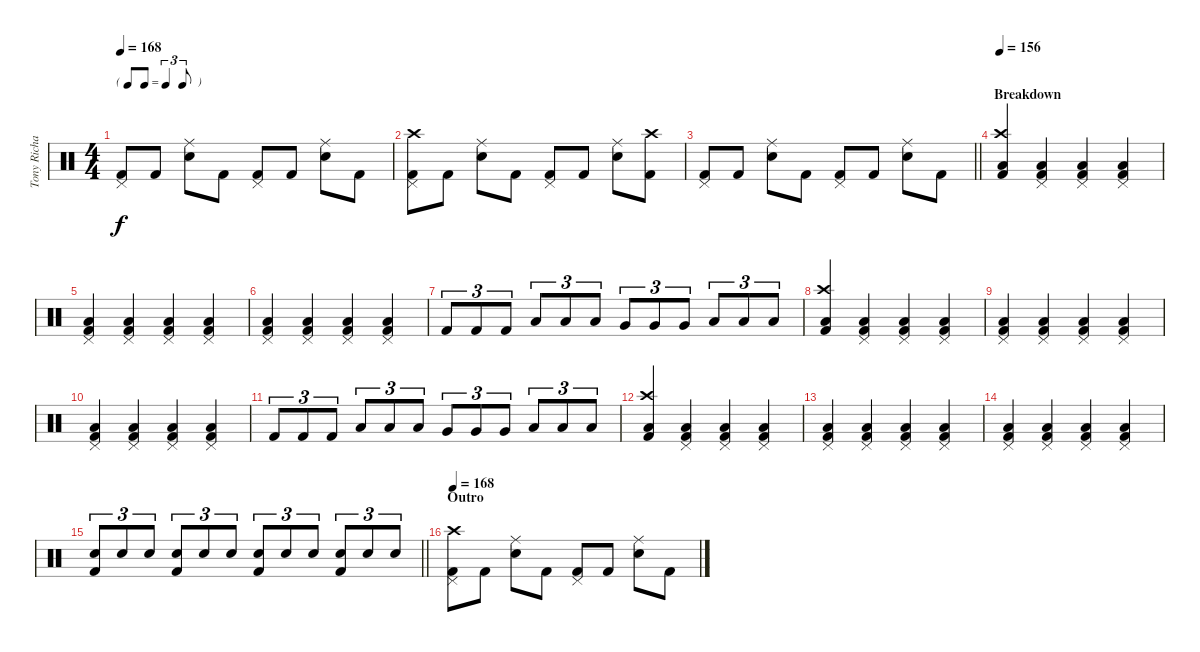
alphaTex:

\track ("Tony Richards (drums)" "Tony Richa") {instrument percussion}
\staff {score}
\articulation defaults
\ts (4 4)
\tf triplet8th
\tempo 168
\clef neutral
\ks c
("Pedal Hi-Hat (hit)" "Kick (hit) 2").8{dy f} "Kick (hit) 2".8 ("Ride (middle)" "Snare (hit) 2").8 "Kick (hit) 2".8 ("Pedal Hi-Hat (hit)" "Kick (hit) 2").8 "Kick (hit) 2".8 ("Ride (middle)" "Snare (hit) 2").8 "Kick (hit) 2".8 |
("Crash high (hit)" "Pedal Hi-Hat (hit)" "Kick (hit) 2").8 "Kick (hit) 2".8 ("Ride (middle)" "Snare (hit) 2").8 "Kick (hit) 2".8 ("Pedal Hi-Hat (hit)" "Kick (hit) 2").8 "Kick (hit) 2".8 ("Ride (middle)" "Snare (hit) 2").8 ("Crash high (hit)" "Kick (hit) 2").8 |
\barLineRight lightlight
("Pedal Hi-Hat (hit)" "Kick (hit) 2").8 "Kick (hit) 2".8 ("Ride (middle)" "Snare (hit) 2").8 "Kick (hit) 2".8 ("Pedal Hi-Hat (hit)" "Kick (hit) 2").8 "Kick (hit) 2".8 ("Ride (middle)" "Snare (hit) 2").8 "Kick (hit) 2".8 |
\section ("" "Breakdown")
\tempo 156
("Crash high (hit)" "Low Floor Tom (hit)" "Kick (hit) 2").4 ("Pedal Hi-Hat (hit)" "Low Floor Tom (hit)" "Kick (hit) 2").4 ("Pedal Hi-Hat (hit)" "Low Floor Tom (hit)" "Kick (hit) 2").4 ("Pedal Hi-Hat (hit)" "Low Floor Tom (hit)" "Kick (hit) 2").4 |
("Pedal Hi-Hat (hit)" "Low Floor Tom (hit)" "Kick (hit) 2").4 ("Pedal Hi-Hat (hit)" "Low Floor Tom (hit)" "Kick (hit) 2").4 ("Pedal Hi-Hat (hit)" "Low Floor Tom (hit)" "Kick (hit) 2").4 ("Pedal Hi-Hat (hit)" "Low Floor Tom (hit)" "Kick (hit) 2").4 |
("Pedal Hi-Hat (hit)" "Low Floor Tom (hit)" "Kick (hit) 2").4 ("Pedal Hi-Hat (hit)" "Low Floor Tom (hit)" "Kick (hit) 2").4 ("Pedal Hi-Hat (hit)" "Low Floor Tom (hit)" "Kick (hit) 2").4 ("Pedal Hi-Hat (hit)" "Low Floor Tom (hit)" "Kick (hit) 2").4 |
"Kick (hit) 2".8{tu (3 2)} "Kick (hit) 2".8{tu (3 2)} "Kick (hit) 2".8{tu (3 2)} "Low Floor Tom (hit)".8{tu (3 2)} "Low Floor Tom (hit)".8{tu (3 2)} "Low Floor Tom (hit)".8{tu (3 2)} "Very Low Tom (hit)".8{tu (3 2)} "Very Low Tom (hit)".8{tu (3 2)} "Very Low Tom (hit)".8{tu (3 2)} "Low Tom (hit)".8{tu (3 2)} "Low Tom (hit)".8{tu (3 2)} "Low Tom (hit)".8{tu (3 2)} |
("Crash high (hit)" "Low Floor Tom (hit)" "Kick (hit) 2").4 ("Pedal Hi-Hat (hit)" "Low Floor Tom (hit)" "Kick (hit) 2").4 ("Pedal Hi-Hat (hit)" "Low Floor Tom (hit)" "Kick (hit) 2").4 ("Pedal Hi-Hat (hit)" "Low Floor Tom (hit)" "Kick (hit) 2").4 |
("Pedal Hi-Hat (hit)" "Low Floor Tom (hit)" "Kick (hit) 2").4 ("Pedal Hi-Hat (hit)" "Low Floor Tom (hit)" "Kick (hit) 2").4 ("Pedal Hi-Hat (hit)" "Low Floor Tom (hit)" "Kick (hit) 2").4 ("Pedal Hi-Hat (hit)" "Low Floor Tom (hit)" "Kick (hit) 2").4 |
("Pedal Hi-Hat (hit)" "Low Floor Tom (hit)" "Kick (hit) 2").4 ("Pedal Hi-Hat (hit)" "Low Floor Tom (hit)" "Kick (hit) 2").4 ("Pedal Hi-Hat (hit)" "Low Floor Tom (hit)" "Kick (hit) 2").4 ("Pedal Hi-Hat (hit)" "Low Floor Tom (hit)" "Kick (hit) 2").4 |
"Kick (hit) 2".8{tu (3 2)} "Kick (hit) 2".8{tu (3 2)} "Kick (hit) 2".8{tu (3 2)} "Low Floor Tom (hit)".8{tu (3 2)} "Low Floor Tom (hit)".8{tu (3 2)} "Low Floor Tom (hit)".8{tu (3 2)} "Very Low Tom (hit)".8{tu (3 2)} "Very Low Tom (hit)".8{tu (3 2)} "Very Low Tom (hit)".8{tu (3 2)} "Low Tom (hit)".8{tu (3 2)} "Low Tom (hit)".8{tu (3 2)} "Low Tom (hit)".8{tu (3 2)} |
("Crash high (hit)" "Low Floor Tom (hit)" "Kick (hit) 2").4 ("Pedal Hi-Hat (hit)" "Low Floor Tom (hit)" "Kick (hit) 2").4 ("Pedal Hi-Hat (hit)" "Low Floor Tom (hit)" "Kick (hit) 2").4 ("Pedal Hi-Hat (hit)" "Low Floor Tom (hit)" "Kick (hit) 2").4 |
("Pedal Hi-Hat (hit)" "Low Floor Tom (hit)" "Kick (hit) 2").4 ("Pedal Hi-Hat (hit)" "Low Floor Tom (hit)" "Kick (hit) 2").4 ("Pedal Hi-Hat (hit)" "Low Floor Tom (hit)" "Kick (hit) 2").4 ("Pedal Hi-Hat (hit)" "Low Floor Tom (hit)" "Kick (hit) 2").4 |
("Pedal Hi-Hat (hit)" "Low Floor Tom (hit)" "Kick (hit) 2").4 ("Pedal Hi-Hat (hit)" "Low Floor Tom (hit)" "Kick (hit) 2").4 ("Pedal Hi-Hat (hit)" "Low Floor Tom (hit)" "Kick (hit) 2").4 ("Pedal Hi-Hat (hit)" "Low Floor Tom (hit)" "Kick (hit) 2").4 |
\barLineRight lightlight
("Snare (hit) 2" "Kick (hit) 2").8{tu (3 2)} "Snare (hit) 2".8{tu (3 2)} "Snare (hit) 2".8{tu (3 2)} ("Snare (hit) 2" "Kick (hit) 2").8{tu (3 2)} "Snare (hit) 2".8{tu (3 2)} "Snare (hit) 2".8{tu (3 2)} ("Snare (hit) 2" "Kick (hit) 2").8{tu (3 2)} "Snare (hit) 2".8{tu (3 2)} "Snare (hit) 2".8{tu (3 2)} ("Snare (hit) 2" "Kick (hit) 2").8{tu (3 2)} "Snare (hit) 2".8{tu (3 2)} "Snare (hit) 2".8{tu (3 2)} |
\section ("" "Outro")
\tempo 168
("Crash high (hit)" "Pedal Hi-Hat (hit)" "Kick (hit) 2").8 "Kick (hit) 2".8 ("Ride (middle)" "Snare (hit) 2").8 "Kick (hit) 2".8 ("Pedal Hi-Hat (hit)" "Kick (hit) 2").8 "Kick (hit) 2".8 ("Ride (middle)" "Snare (hit) 2").8 "Kick (hit) 2".8
